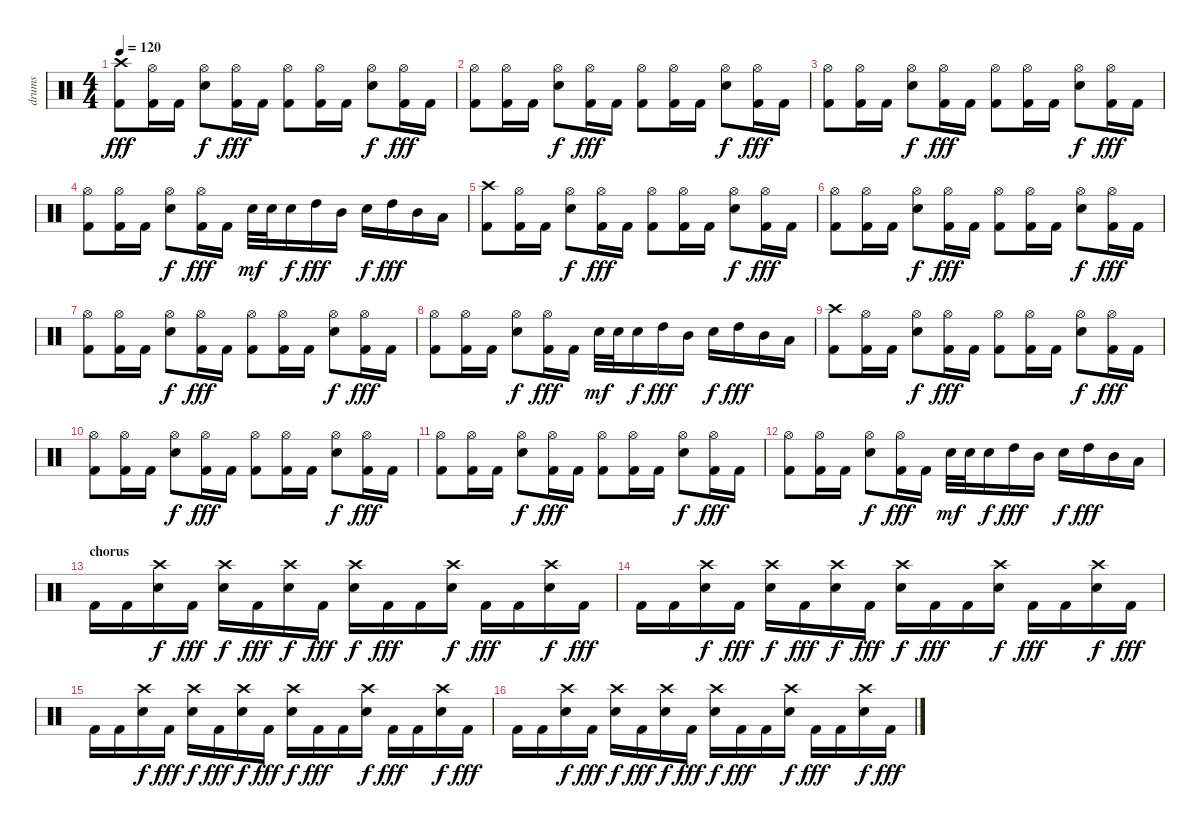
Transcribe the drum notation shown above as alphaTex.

\track ("drums" "drums") {instrument percussion}
\staff {score}
\articulation defaults
\ts (4 4)
\tempo 120
\clef neutral
\ks c
("Crash high (hit)" "Kick (hit) 2").8{dy fff} ("Hi-Hat (open)" "Kick (hit) 2").16 "Kick (hit) 2".16 ("Hi-Hat (open)" "Snare (hit) 2").8{dy f} ("Hi-Hat (open)" "Kick (hit) 2").16{dy fff} "Kick (hit) 2".16 ("Hi-Hat (open)" "Kick (hit) 2").8 ("Hi-Hat (open)" "Kick (hit) 2").16 "Kick (hit) 2".16 ("Hi-Hat (open)" "Snare (hit) 2").8{dy f} ("Hi-Hat (open)" "Kick (hit) 2").16{dy fff} "Kick (hit) 2".16 |
("Hi-Hat (open)" "Kick (hit) 2").8 ("Hi-Hat (open)" "Kick (hit) 2").16 "Kick (hit) 2".16 ("Hi-Hat (open)" "Snare (hit) 2").8{dy f} ("Hi-Hat (open)" "Kick (hit) 2").16{dy fff} "Kick (hit) 2".16 ("Hi-Hat (open)" "Kick (hit) 2").8 ("Hi-Hat (open)" "Kick (hit) 2").16 "Kick (hit) 2".16 ("Hi-Hat (open)" "Snare (hit) 2").8{dy f} ("Hi-Hat (open)" "Kick (hit) 2").16{dy fff} "Kick (hit) 2".16 |
("Hi-Hat (open)" "Kick (hit) 2").8 ("Hi-Hat (open)" "Kick (hit) 2").16 "Kick (hit) 2".16 ("Hi-Hat (open)" "Snare (hit) 2").8{dy f} ("Hi-Hat (open)" "Kick (hit) 2").16{dy fff} "Kick (hit) 2".16 ("Hi-Hat (open)" "Kick (hit) 2").8 ("Hi-Hat (open)" "Kick (hit) 2").16 "Kick (hit) 2".16 ("Hi-Hat (open)" "Snare (hit) 2").8{dy f} ("Hi-Hat (open)" "Kick (hit) 2").16{dy fff} "Kick (hit) 2".16 |
("Hi-Hat (open)" "Kick (hit) 2").8 ("Hi-Hat (open)" "Kick (hit) 2").16 "Kick (hit) 2".16 ("Hi-Hat (open)" "Snare (hit) 2").8{dy f} ("Hi-Hat (open)" "Kick (hit) 2").16{dy fff} "Kick (hit) 2".16 "Snare (hit) 2".32{dy mf} "Snare (hit) 2".32 "Snare (hit) 2".16{dy f} "High Tom (hit)".16{dy fff} "Mid Tom (hit)".16 "Snare (hit) 2".16{dy f} "High Tom (hit)".16{dy fff} "Mid Tom (hit)".16 "Low Tom (hit)".16 |
("Crash high (hit)" "Kick (hit) 2").8 ("Hi-Hat (open)" "Kick (hit) 2").16 "Kick (hit) 2".16 ("Hi-Hat (open)" "Snare (hit) 2").8{dy f} ("Hi-Hat (open)" "Kick (hit) 2").16{dy fff} "Kick (hit) 2".16 ("Hi-Hat (open)" "Kick (hit) 2").8 ("Hi-Hat (open)" "Kick (hit) 2").16 "Kick (hit) 2".16 ("Hi-Hat (open)" "Snare (hit) 2").8{dy f} ("Hi-Hat (open)" "Kick (hit) 2").16{dy fff} "Kick (hit) 2".16 |
("Hi-Hat (open)" "Kick (hit) 2").8 ("Hi-Hat (open)" "Kick (hit) 2").16 "Kick (hit) 2".16 ("Hi-Hat (open)" "Snare (hit) 2").8{dy f} ("Hi-Hat (open)" "Kick (hit) 2").16{dy fff} "Kick (hit) 2".16 ("Hi-Hat (open)" "Kick (hit) 2").8 ("Hi-Hat (open)" "Kick (hit) 2").16 "Kick (hit) 2".16 ("Hi-Hat (open)" "Snare (hit) 2").8{dy f} ("Hi-Hat (open)" "Kick (hit) 2").16{dy fff} "Kick (hit) 2".16 |
("Hi-Hat (open)" "Kick (hit) 2").8 ("Hi-Hat (open)" "Kick (hit) 2").16 "Kick (hit) 2".16 ("Hi-Hat (open)" "Snare (hit) 2").8{dy f} ("Hi-Hat (open)" "Kick (hit) 2").16{dy fff} "Kick (hit) 2".16 ("Hi-Hat (open)" "Kick (hit) 2").8 ("Hi-Hat (open)" "Kick (hit) 2").16 "Kick (hit) 2".16 ("Hi-Hat (open)" "Snare (hit) 2").8{dy f} ("Hi-Hat (open)" "Kick (hit) 2").16{dy fff} "Kick (hit) 2".16 |
("Hi-Hat (open)" "Kick (hit) 2").8 ("Hi-Hat (open)" "Kick (hit) 2").16 "Kick (hit) 2".16 ("Hi-Hat (open)" "Snare (hit) 2").8{dy f} ("Hi-Hat (open)" "Kick (hit) 2").16{dy fff} "Kick (hit) 2".16 "Snare (hit) 2".32{dy mf} "Snare (hit) 2".32 "Snare (hit) 2".16{dy f} "High Tom (hit)".16{dy fff} "Mid Tom (hit)".16 "Snare (hit) 2".16{dy f} "High Tom (hit)".16{dy fff} "Mid Tom (hit)".16 "Low Tom (hit)".16 |
("Crash high (hit)" "Kick (hit) 2").8 ("Hi-Hat (open)" "Kick (hit) 2").16 "Kick (hit) 2".16 ("Hi-Hat (open)" "Snare (hit) 2").8{dy f} ("Hi-Hat (open)" "Kick (hit) 2").16{dy fff} "Kick (hit) 2".16 ("Hi-Hat (open)" "Kick (hit) 2").8 ("Hi-Hat (open)" "Kick (hit) 2").16 "Kick (hit) 2".16 ("Hi-Hat (open)" "Snare (hit) 2").8{dy f} ("Hi-Hat (open)" "Kick (hit) 2").16{dy fff} "Kick (hit) 2".16 |
("Hi-Hat (open)" "Kick (hit) 2").8 ("Hi-Hat (open)" "Kick (hit) 2").16 "Kick (hit) 2".16 ("Hi-Hat (open)" "Snare (hit) 2").8{dy f} ("Hi-Hat (open)" "Kick (hit) 2").16{dy fff} "Kick (hit) 2".16 ("Hi-Hat (open)" "Kick (hit) 2").8 ("Hi-Hat (open)" "Kick (hit) 2").16 "Kick (hit) 2".16 ("Hi-Hat (open)" "Snare (hit) 2").8{dy f} ("Hi-Hat (open)" "Kick (hit) 2").16{dy fff} "Kick (hit) 2".16 |
("Hi-Hat (open)" "Kick (hit) 2").8 ("Hi-Hat (open)" "Kick (hit) 2").16 "Kick (hit) 2".16 ("Hi-Hat (open)" "Snare (hit) 2").8{dy f} ("Hi-Hat (open)" "Kick (hit) 2").16{dy fff} "Kick (hit) 2".16 ("Hi-Hat (open)" "Kick (hit) 2").8 ("Hi-Hat (open)" "Kick (hit) 2").16 "Kick (hit) 2".16 ("Hi-Hat (open)" "Snare (hit) 2").8{dy f} ("Hi-Hat (open)" "Kick (hit) 2").16{dy fff} "Kick (hit) 2".16 |
("Hi-Hat (open)" "Kick (hit) 2").8 ("Hi-Hat (open)" "Kick (hit) 2").16 "Kick (hit) 2".16 ("Hi-Hat (open)" "Snare (hit) 2").8{dy f} ("Hi-Hat (open)" "Kick (hit) 2").16{dy fff} "Kick (hit) 2".16 "Snare (hit) 2".32{dy mf} "Snare (hit) 2".32 "Snare (hit) 2".16{dy f} "High Tom (hit)".16{dy fff} "Mid Tom (hit)".16 "Snare (hit) 2".16{dy f} "High Tom (hit)".16{dy fff} "Mid Tom (hit)".16 "Low Tom (hit)".16 |
\section ("" "chorus")
"Kick (hit) 2".16 "Kick (hit) 2".16 ("Crash high (hit)" "Snare (hit) 2").16{dy f} "Kick (hit) 2".16{dy fff} ("Crash high (hit)" "Snare (hit) 2").16{dy f} "Kick (hit) 2".16{dy fff} ("Crash high (hit)" "Snare (hit) 2").16{dy f} "Kick (hit) 2".16{dy fff} ("Crash high (hit)" "Snare (hit) 2").16{dy f} "Kick (hit) 2".16{dy fff} "Kick (hit) 2".16 ("Crash high (hit)" "Snare (hit) 2").16{dy f} "Kick (hit) 2".16{dy fff} "Kick (hit) 2".16 ("Crash high (hit)" "Snare (hit) 2").16{dy f} "Kick (hit) 2".16{dy fff} |
"Kick (hit) 2".16 "Kick (hit) 2".16 ("Crash high (hit)" "Snare (hit) 2").16{dy f} "Kick (hit) 2".16{dy fff} ("Crash high (hit)" "Snare (hit) 2").16{dy f} "Kick (hit) 2".16{dy fff} ("Crash high (hit)" "Snare (hit) 2").16{dy f} "Kick (hit) 2".16{dy fff} ("Crash high (hit)" "Snare (hit) 2").16{dy f} "Kick (hit) 2".16{dy fff} "Kick (hit) 2".16 ("Crash high (hit)" "Snare (hit) 2").16{dy f} "Kick (hit) 2".16{dy fff} "Kick (hit) 2".16 ("Crash high (hit)" "Snare (hit) 2").16{dy f} "Kick (hit) 2".16{dy fff} |
"Kick (hit) 2".16 "Kick (hit) 2".16 ("Crash high (hit)" "Snare (hit) 2").16{dy f} "Kick (hit) 2".16{dy fff} ("Crash high (hit)" "Snare (hit) 2").16{dy f} "Kick (hit) 2".16{dy fff} ("Crash high (hit)" "Snare (hit) 2").16{dy f} "Kick (hit) 2".16{dy fff} ("Crash high (hit)" "Snare (hit) 2").16{dy f} "Kick (hit) 2".16{dy fff} "Kick (hit) 2".16 ("Crash high (hit)" "Snare (hit) 2").16{dy f} "Kick (hit) 2".16{dy fff} "Kick (hit) 2".16 ("Crash high (hit)" "Snare (hit) 2").16{dy f} "Kick (hit) 2".16{dy fff} |
"Kick (hit) 2".16 "Kick (hit) 2".16 ("Crash high (hit)" "Snare (hit) 2").16{dy f} "Kick (hit) 2".16{dy fff} ("Crash high (hit)" "Snare (hit) 2").16{dy f} "Kick (hit) 2".16{dy fff} ("Crash high (hit)" "Snare (hit) 2").16{dy f} "Kick (hit) 2".16{dy fff} ("Crash high (hit)" "Snare (hit) 2").16{dy f} "Kick (hit) 2".16{dy fff} "Kick (hit) 2".16 ("Crash high (hit)" "Snare (hit) 2").16{dy f} "Kick (hit) 2".16{dy fff} "Kick (hit) 2".16 ("Crash high (hit)" "Snare (hit) 2").16{dy f} "Kick (hit) 2".16{dy fff}
